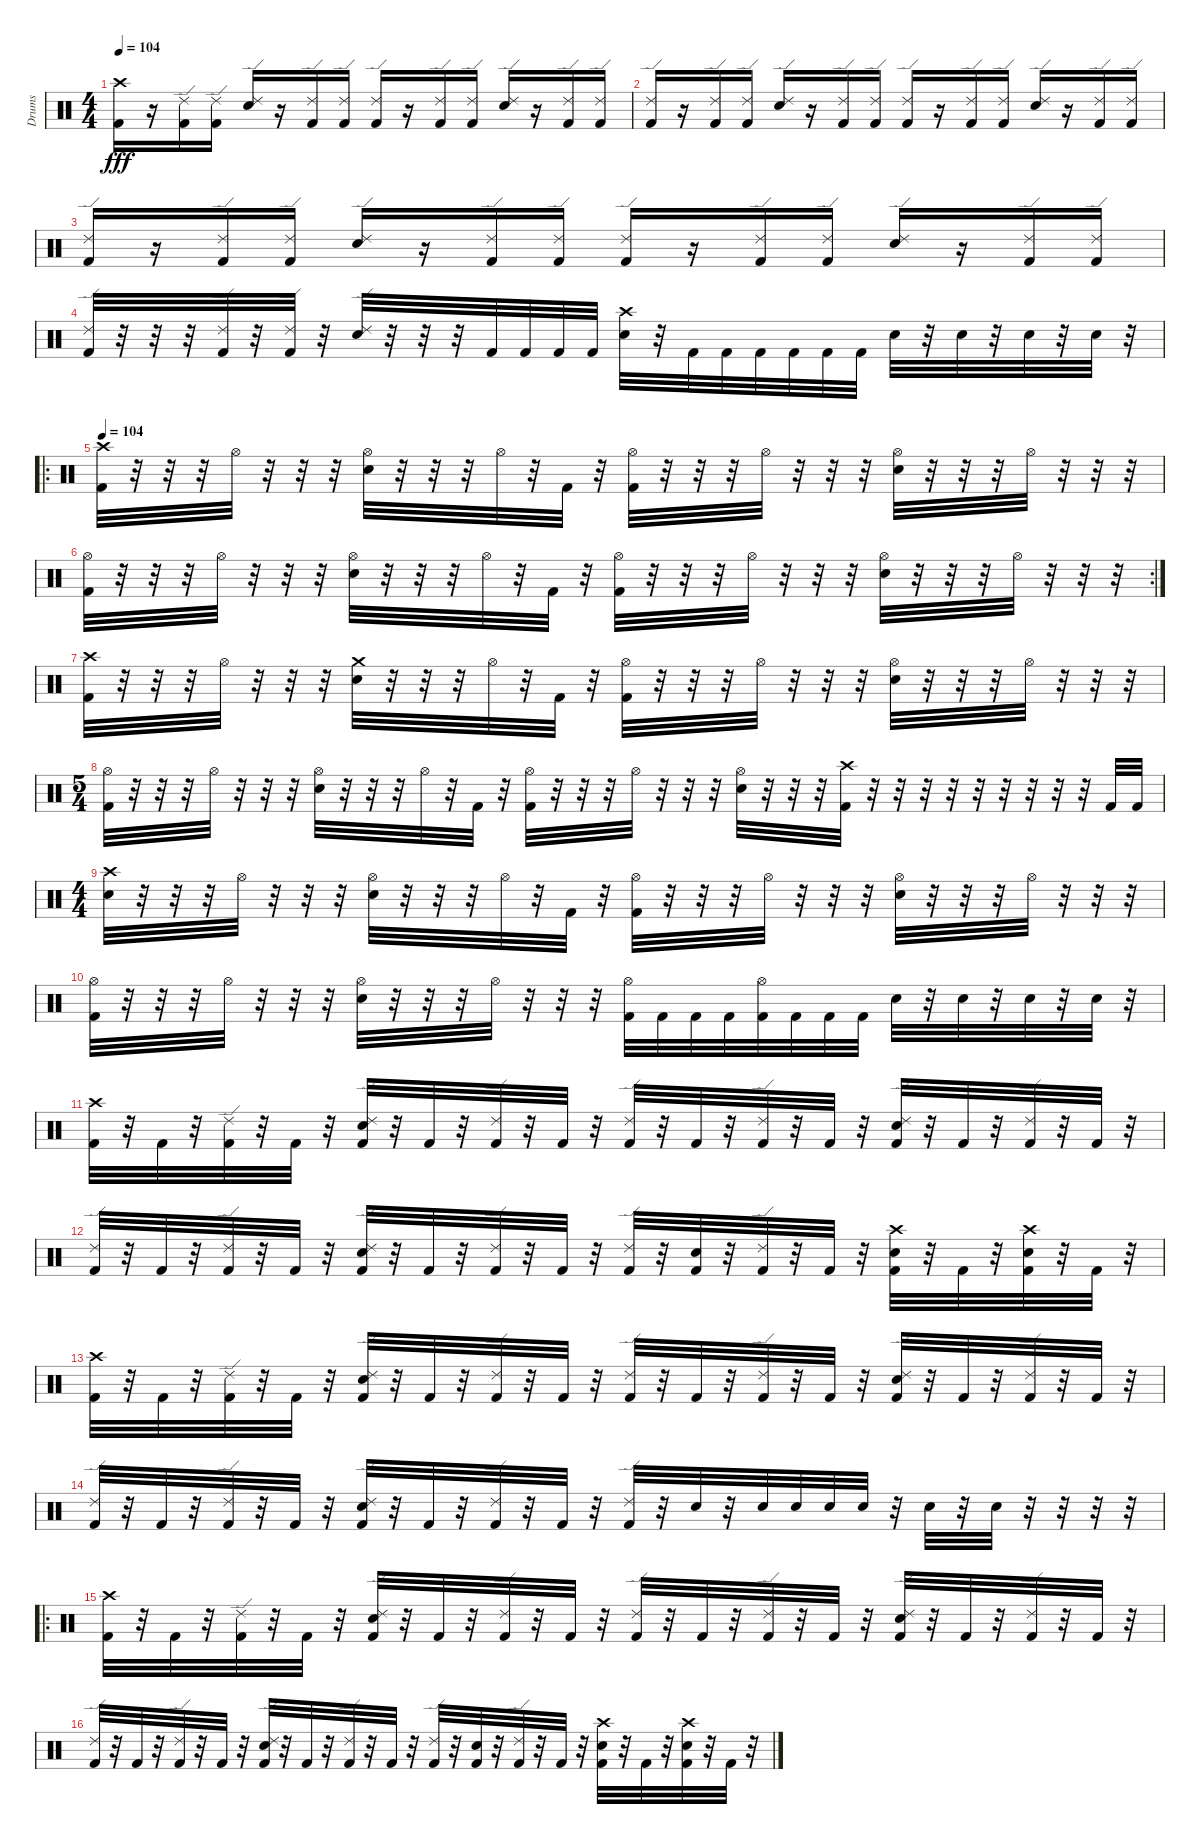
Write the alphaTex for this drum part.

\track ("Drums" "Drums") {instrument percussion}
\staff {score}
\articulation defaults
\ts (4 4)
\tempo 104
\clef neutral
\ks c
("Crash high (hit)" "Kick (hit) 2").16{dy fff} r.16 ("Ride (edge) 2" "Kick (hit) 2").16 ("Ride (edge) 2" "Kick (hit) 2").16 ("Ride (edge) 2" "Snare (hit) 2").16 r.16 ("Ride (edge) 2" "Kick (hit) 2").16 ("Ride (edge) 2" "Kick (hit) 2").16 ("Ride (edge) 2" "Kick (hit) 2").16 r.16 ("Ride (edge) 2" "Kick (hit) 2").16 ("Ride (edge) 2" "Kick (hit) 2").16 ("Ride (edge) 2" "Snare (hit) 2").16 r.16 ("Ride (edge) 2" "Kick (hit) 2").16 ("Ride (edge) 2" "Kick (hit) 2").16 |
("Ride (edge) 2" "Kick (hit) 2").16 r.16 ("Ride (edge) 2" "Kick (hit) 2").16 ("Ride (edge) 2" "Kick (hit) 2").16 ("Ride (edge) 2" "Snare (hit) 2").16 r.16 ("Ride (edge) 2" "Kick (hit) 2").16 ("Ride (edge) 2" "Kick (hit) 2").16 ("Ride (edge) 2" "Kick (hit) 2").16 r.16 ("Ride (edge) 2" "Kick (hit) 2").16 ("Ride (edge) 2" "Kick (hit) 2").16 ("Ride (edge) 2" "Snare (hit) 2").16 r.16 ("Ride (edge) 2" "Kick (hit) 2").16 ("Ride (edge) 2" "Kick (hit) 2").16 |
("Ride (edge) 2" "Kick (hit) 2").16 r.16 ("Ride (edge) 2" "Kick (hit) 2").16 ("Ride (edge) 2" "Kick (hit) 2").16 ("Ride (edge) 2" "Snare (hit) 2").16 r.16 ("Ride (edge) 2" "Kick (hit) 2").16 ("Ride (edge) 2" "Kick (hit) 2").16 ("Ride (edge) 2" "Kick (hit) 2").16 r.16 ("Ride (edge) 2" "Kick (hit) 2").16 ("Ride (edge) 2" "Kick (hit) 2").16 ("Ride (edge) 2" "Snare (hit) 2").16 r.16 ("Ride (edge) 2" "Kick (hit) 2").16 ("Ride (edge) 2" "Kick (hit) 2").16 |
("Ride (edge) 2" "Kick (hit) 2").32 r.32 r.32 r.32 ("Ride (edge) 2" "Kick (hit) 2").32 r.32 ("Ride (edge) 2" "Kick (hit) 2").32 r.32 ("Ride (edge) 2" "Snare (hit) 2").32 r.32 r.32 r.32 "Kick (hit) 2".32 "Kick (hit) 2".32 "Kick (hit) 2".32 "Kick (hit) 2".32 ("Crash high (hit)" "Snare (hit) 2").32 r.32 "Kick (hit) 2".32 "Kick (hit) 2".32 "Kick (hit) 2".32 "Kick (hit) 2".32 "Kick (hit) 2".32 "Kick (hit) 2".32 "Snare (hit) 2".32 r.32 "Snare (hit) 2".32 r.32 "Snare (hit) 2".32 r.32 "Snare (hit) 2".32 r.32 |
\ro
\tempo 104
("Crash high (hit)" "Kick (hit) 2").32 r.32 r.32 r.32 "Hi-Hat (open)".32 r.32 r.32 r.32 ("Hi-Hat (open)" "Snare (hit) 2").32 r.32 r.32 r.32 "Hi-Hat (open)".32 r.32 "Kick (hit) 2".32 r.32 ("Hi-Hat (open)" "Kick (hit) 2").32 r.32 r.32 r.32 "Hi-Hat (open)".32 r.32 r.32 r.32 ("Hi-Hat (open)" "Snare (hit) 2").32 r.32 r.32 r.32 "Hi-Hat (open)".32 r.32 r.32 r.32 |
\rc 2
("Hi-Hat (open)" "Kick (hit) 2").32 r.32 r.32 r.32 "Hi-Hat (open)".32 r.32 r.32 r.32 ("Hi-Hat (open)" "Snare (hit) 2").32 r.32 r.32 r.32 "Hi-Hat (open)".32 r.32 "Kick (hit) 2".32 r.32 ("Hi-Hat (open)" "Kick (hit) 2").32 r.32 r.32 r.32 "Hi-Hat (open)".32 r.32 r.32 r.32 ("Hi-Hat (open)" "Snare (hit) 2").32 r.32 r.32 r.32 "Hi-Hat (open)".32 r.32 r.32 r.32 |
("Crash high (hit)" "Kick (hit) 2").32 r.32 r.32 r.32 "Hi-Hat (open)".32 r.32 r.32 r.32 ("Crash medium (hit)" "Snare (hit) 2").32 r.32 r.32 r.32 "Hi-Hat (open)".32 r.32 "Kick (hit) 2".32 r.32 ("Hi-Hat (open)" "Kick (hit) 2").32 r.32 r.32 r.32 "Hi-Hat (open)".32 r.32 r.32 r.32 ("Hi-Hat (open)" "Snare (hit) 2").32 r.32 r.32 r.32 "Hi-Hat (open)".32 r.32 r.32 r.32 |
\ts (5 4)
("Hi-Hat (open)" "Kick (hit) 2").32 r.32 r.32 r.32 "Hi-Hat (open)".32 r.32 r.32 r.32 ("Hi-Hat (open)" "Snare (hit) 2").32 r.32 r.32 r.32 "Hi-Hat (open)".32 r.32 "Kick (hit) 2".32 r.32 ("Hi-Hat (open)" "Kick (hit) 2").32 r.32 r.32 r.32 "Hi-Hat (open)".32 r.32 r.32 r.32 ("Hi-Hat (open)" "Snare (hit) 2").32 r.32 r.32 r.32 ("Crash high (hit)" "Kick (hit) 2").32 r.32 r.32 r.32 r.32 r.32 r.32 r.32 r.32 r.32 "Kick (hit) 2".32 "Kick (hit) 2".32 |
\ts (4 4)
("Crash high (hit)" "Snare (hit) 2").32 r.32 r.32 r.32 "Hi-Hat (open)".32 r.32 r.32 r.32 ("Hi-Hat (open)" "Snare (hit) 2").32 r.32 r.32 r.32 "Hi-Hat (open)".32 r.32 "Kick (hit) 2".32 r.32 ("Hi-Hat (open)" "Kick (hit) 2").32 r.32 r.32 r.32 "Hi-Hat (open)".32 r.32 r.32 r.32 ("Hi-Hat (open)" "Snare (hit) 2").32 r.32 r.32 r.32 "Hi-Hat (open)".32 r.32 r.32 r.32 |
("Hi-Hat (open)" "Kick (hit) 2").32 r.32 r.32 r.32 "Hi-Hat (open)".32 r.32 r.32 r.32 ("Hi-Hat (open)" "Snare (hit) 2").32 r.32 r.32 r.32 "Hi-Hat (open)".32 r.32 r.32 r.32 ("Hi-Hat (open)" "Kick (hit) 2").32 "Kick (hit) 2".32 "Kick (hit) 2".32 "Kick (hit) 2".32 ("Hi-Hat (open)" "Kick (hit) 2").32 "Kick (hit) 2".32 "Kick (hit) 2".32 "Kick (hit) 2".32 "Snare (hit) 2".32 r.32 "Snare (hit) 2".32 r.32 "Snare (hit) 2".32 r.32 "Snare (hit) 2".32 r.32 |
("Crash high (hit)" "Kick (hit) 2").32 r.32 "Kick (hit) 2".32 r.32 ("Ride (edge) 2" "Kick (hit) 2").32 r.32 "Kick (hit) 2".32 r.32 ("Ride (edge) 2" "Snare (hit) 2" "Kick (hit) 2").32 r.32 "Kick (hit) 2".32 r.32 ("Ride (edge) 2" "Kick (hit) 2").32 r.32 "Kick (hit) 2".32 r.32 ("Ride (edge) 2" "Kick (hit) 2").32 r.32 "Kick (hit) 2".32 r.32 ("Ride (edge) 2" "Kick (hit) 2").32 r.32 "Kick (hit) 2".32 r.32 ("Ride (edge) 2" "Snare (hit) 2" "Kick (hit) 2").32 r.32 "Kick (hit) 2".32 r.32 ("Ride (edge) 2" "Kick (hit) 2").32 r.32 "Kick (hit) 2".32 r.32 |
("Ride (edge) 2" "Kick (hit) 2").32 r.32 "Kick (hit) 2".32 r.32 ("Ride (edge) 2" "Kick (hit) 2").32 r.32 "Kick (hit) 2".32 r.32 ("Ride (edge) 2" "Snare (hit) 2" "Kick (hit) 2").32 r.32 "Kick (hit) 2".32 r.32 ("Ride (edge) 2" "Kick (hit) 2").32 r.32 "Kick (hit) 2".32 r.32 ("Ride (edge) 2" "Kick (hit) 2").32 r.32 ("Snare (hit) 2" "Kick (hit) 2").32 r.32 ("Ride (edge) 2" "Kick (hit) 2").32 r.32 "Kick (hit) 2".32 r.32 ("Crash high (hit)" "Snare (hit) 2" "Kick (hit) 2").32 r.32 "Kick (hit) 2".32 r.32 ("Crash high (hit)" "Snare (hit) 2" "Kick (hit) 2").32 r.32 "Kick (hit) 2".32 r.32 |
("Crash high (hit)" "Kick (hit) 2").32 r.32 "Kick (hit) 2".32 r.32 ("Ride (edge) 2" "Kick (hit) 2").32 r.32 "Kick (hit) 2".32 r.32 ("Ride (edge) 2" "Snare (hit) 2" "Kick (hit) 2").32 r.32 "Kick (hit) 2".32 r.32 ("Ride (edge) 2" "Kick (hit) 2").32 r.32 "Kick (hit) 2".32 r.32 ("Ride (edge) 2" "Kick (hit) 2").32 r.32 "Kick (hit) 2".32 r.32 ("Ride (edge) 2" "Kick (hit) 2").32 r.32 "Kick (hit) 2".32 r.32 ("Ride (edge) 2" "Snare (hit) 2" "Kick (hit) 2").32 r.32 "Kick (hit) 2".32 r.32 ("Ride (edge) 2" "Kick (hit) 2").32 r.32 "Kick (hit) 2".32 r.32 |
("Ride (edge) 2" "Kick (hit) 2").32 r.32 "Kick (hit) 2".32 r.32 ("Ride (edge) 2" "Kick (hit) 2").32 r.32 "Kick (hit) 2".32 r.32 ("Ride (edge) 2" "Snare (hit) 2" "Kick (hit) 2").32 r.32 "Kick (hit) 2".32 r.32 ("Ride (edge) 2" "Kick (hit) 2").32 r.32 "Kick (hit) 2".32 r.32 ("Ride (edge) 2" "Kick (hit) 2").32 r.32 "Snare (hit) 2".32 r.32 "Snare (hit) 2".32 "Snare (hit) 2".32 "Snare (hit) 2".32 "Snare (hit) 2".32 r.32 "Snare (hit) 2".32 r.32 "Snare (hit) 2".32 r.32 r.32 r.32 r.32 |
\ro
("Crash high (hit)" "Kick (hit) 2").32 r.32 "Kick (hit) 2".32 r.32 ("Ride (edge) 2" "Kick (hit) 2").32 r.32 "Kick (hit) 2".32 r.32 ("Ride (edge) 2" "Snare (hit) 2" "Kick (hit) 2").32 r.32 "Kick (hit) 2".32 r.32 ("Ride (edge) 2" "Kick (hit) 2").32 r.32 "Kick (hit) 2".32 r.32 ("Ride (edge) 2" "Kick (hit) 2").32 r.32 "Kick (hit) 2".32 r.32 ("Ride (edge) 2" "Kick (hit) 2").32 r.32 "Kick (hit) 2".32 r.32 ("Ride (edge) 2" "Snare (hit) 2" "Kick (hit) 2").32 r.32 "Kick (hit) 2".32 r.32 ("Ride (edge) 2" "Kick (hit) 2").32 r.32 "Kick (hit) 2".32 r.32 |
("Ride (edge) 2" "Kick (hit) 2").32 r.32 "Kick (hit) 2".32 r.32 ("Ride (edge) 2" "Kick (hit) 2").32 r.32 "Kick (hit) 2".32 r.32 ("Ride (edge) 2" "Snare (hit) 2" "Kick (hit) 2").32 r.32 "Kick (hit) 2".32 r.32 ("Ride (edge) 2" "Kick (hit) 2").32 r.32 "Kick (hit) 2".32 r.32 ("Ride (edge) 2" "Kick (hit) 2").32 r.32 ("Snare (hit) 2" "Kick (hit) 2").32 r.32 ("Ride (edge) 2" "Kick (hit) 2").32 r.32 "Kick (hit) 2".32 r.32 ("Crash high (hit)" "Snare (hit) 2" "Kick (hit) 2").32 r.32 "Kick (hit) 2".32 r.32 ("Crash high (hit)" "Snare (hit) 2" "Kick (hit) 2").32 r.32 "Kick (hit) 2".32 r.32
